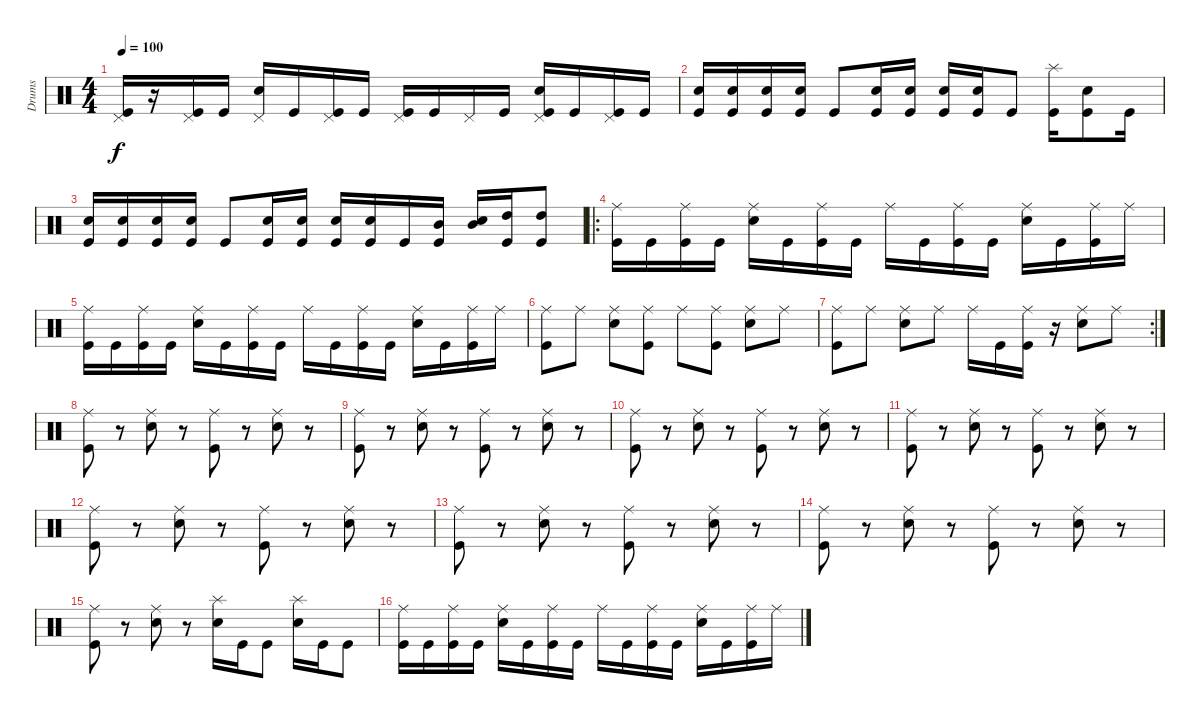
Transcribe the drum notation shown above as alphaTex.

\track ("Drums" "Drums") {instrument percussion}
\staff {score}
\articulation defaults
\ts (4 4)
\tempo 100
\clef neutral
\ks c
("Kick (hit)" "Pedal Hi-Hat (hit)").16{dy f} r.16 ("Kick (hit)" "Pedal Hi-Hat (hit)").16 "Kick (hit)".16 ("Snare (hit) 2" "Pedal Hi-Hat (hit)").16 "Kick (hit)".16 ("Kick (hit)" "Pedal Hi-Hat (hit)").16 "Kick (hit)".16 ("Kick (hit)" "Pedal Hi-Hat (hit)").16 "Kick (hit)".16 "Pedal Hi-Hat (hit)".16 "Kick (hit)".16 ("Kick (hit)" "Snare (hit) 2" "Pedal Hi-Hat (hit)").16 "Kick (hit)".16 ("Kick (hit)" "Pedal Hi-Hat (hit)").16 "Kick (hit)".16 |
("Snare (hit) 2" "Kick (hit)").16 ("Snare (hit) 2" "Kick (hit)").16 ("Snare (hit) 2" "Kick (hit)").16 ("Snare (hit) 2" "Kick (hit)").16 "Kick (hit)".8 ("Snare (hit) 2" "Kick (hit)").16 ("Snare (hit) 2" "Kick (hit)").16 ("Snare (hit) 2" "Kick (hit)").16 ("Snare (hit) 2" "Kick (hit)").16 "Kick (hit)".8 ("Splash (hit)" "Kick (hit)").16 ("Snare (hit) 2" "Kick (hit)").8 "Kick (hit)".16 |
("Snare (hit) 2" "Kick (hit)").16 ("Snare (hit) 2" "Kick (hit)").16 ("Snare (hit) 2" "Kick (hit)").16 ("Snare (hit) 2" "Kick (hit)").16 "Kick (hit)".8 ("Snare (hit) 2" "Kick (hit)").16 ("Snare (hit) 2" "Kick (hit)").16 ("Snare (hit) 2" "Kick (hit)").16 ("Snare (hit) 2" "Kick (hit)").16 "Kick (hit)".16 ("Kick (hit)" "Mid Tom (hit)").16 ("Snare (hit) 2" "Mid Tom (hit)").16 ("Kick (hit)" "High Tom (hit)").16 ("Kick (hit)" "High Tom (hit)").8 |
\ro
("Kick (hit)" "Ride (middle)").16 "Kick (hit)".16 ("Kick (hit)" "Ride (middle)").16 "Kick (hit)".16 ("Snare (hit) 2" "Ride (middle)").16 "Kick (hit)".16 ("Kick (hit)" "Ride (middle)").16 "Kick (hit)".16 "Ride (middle)".16 "Kick (hit)".16 ("Kick (hit)" "Ride (middle)").16 "Kick (hit)".16 ("Snare (hit) 2" "Ride (middle)").16 "Kick (hit)".16 ("Kick (hit)" "Ride (middle)").16 "Ride (middle)".16 |
("Kick (hit)" "Ride (middle)").16 "Kick (hit)".16 ("Kick (hit)" "Ride (middle)").16 "Kick (hit)".16 ("Snare (hit) 2" "Ride (middle)").16 "Kick (hit)".16 ("Kick (hit)" "Ride (middle)").16 "Kick (hit)".16 "Ride (middle)".16 "Kick (hit)".16 ("Kick (hit)" "Ride (middle)").16 "Kick (hit)".16 ("Snare (hit) 2" "Ride (middle)").16 "Kick (hit)".16 ("Kick (hit)" "Ride (middle)").16 "Ride (middle)".16 |
("Kick (hit)" "Ride (middle)").8 "Ride (middle)".8 ("Snare (hit) 2" "Ride (middle)").8 ("Kick (hit)" "Ride (middle)").8 "Ride (middle)".8 ("Kick (hit)" "Ride (middle)").8 ("Snare (hit) 2" "Ride (middle)").8 "Ride (middle)".8 |
\rc 2
("Kick (hit)" "Ride (middle)").8 "Ride (middle)".8 ("Snare (hit) 2" "Ride (middle)").8 "Ride (middle)".8 "Ride (middle)".16 "Kick (hit)".16 ("Kick (hit)" "Ride (middle)").16 r.16 ("Snare (hit) 2" "Ride (middle)").8 "Ride (middle)".8 |
("Kick (hit)" "Ride (middle)").8 r.8 ("Snare (hit) 2" "Ride (middle)").8 r.8 ("Kick (hit)" "Ride (middle)").8 r.8 ("Snare (hit) 2" "Ride (middle)").8 r.8 |
("Kick (hit)" "Ride (middle)").8 r.8 ("Snare (hit) 2" "Ride (middle)").8 r.8 ("Kick (hit)" "Ride (middle)").8 r.8 ("Snare (hit) 2" "Ride (middle)").8 r.8 |
("Kick (hit)" "Ride (middle)").8 r.8 ("Snare (hit) 2" "Ride (middle)").8 r.8 ("Kick (hit)" "Ride (middle)").8 r.8 ("Snare (hit) 2" "Ride (middle)").8 r.8 |
("Kick (hit)" "Ride (middle)").8 r.8 ("Snare (hit) 2" "Ride (middle)").8 r.8 ("Kick (hit)" "Ride (middle)").8 r.8 ("Snare (hit) 2" "Ride (middle)").8 r.8 |
("Kick (hit)" "Ride (middle)").8 r.8 ("Snare (hit) 2" "Ride (middle)").8 r.8 ("Kick (hit)" "Ride (middle)").8 r.8 ("Snare (hit) 2" "Ride (middle)").8 r.8 |
("Kick (hit)" "Ride (middle)").8 r.8 ("Snare (hit) 2" "Ride (middle)").8 r.8 ("Kick (hit)" "Ride (middle)").8 r.8 ("Snare (hit) 2" "Ride (middle)").8 r.8 |
("Kick (hit)" "Ride (middle)").8 r.8 ("Snare (hit) 2" "Ride (middle)").8 r.8 ("Kick (hit)" "Ride (middle)").8 r.8 ("Snare (hit) 2" "Ride (middle)").8 r.8 |
("Kick (hit)" "Ride (middle)").8 r.8 ("Snare (hit) 2" "Ride (middle)").8 r.8 ("Snare (hit) 2" "Splash (hit)").16 "Kick (hit)".16 "Kick (hit)".8 ("Snare (hit) 2" "Splash (hit)").16 "Kick (hit)".16 "Kick (hit)".8 |
("Kick (hit)" "Ride (middle)").16 "Kick (hit)".16 ("Kick (hit)" "Ride (middle)").16 "Kick (hit)".16 ("Snare (hit) 2" "Ride (middle)").16 "Kick (hit)".16 ("Kick (hit)" "Ride (middle)").16 "Kick (hit)".16 "Ride (middle)".16 "Kick (hit)".16 ("Kick (hit)" "Ride (middle)").16 "Kick (hit)".16 ("Snare (hit) 2" "Ride (middle)").16 "Kick (hit)".16 ("Kick (hit)" "Ride (middle)").16 "Ride (middle)".16
